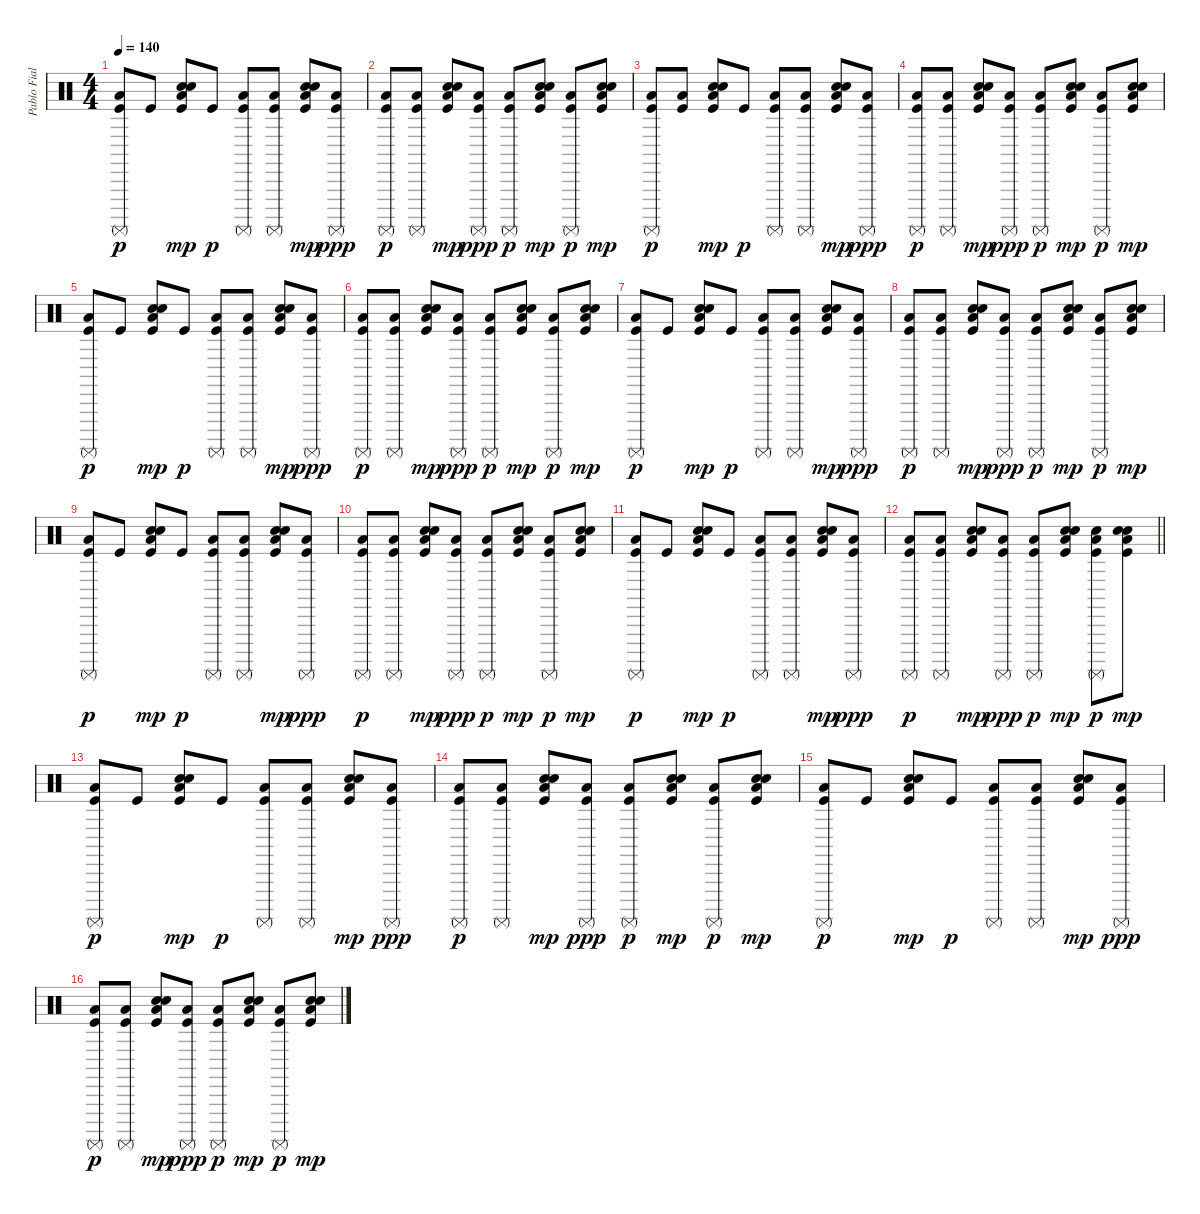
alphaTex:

\track ("Pablo Fiallo" "Pablo Fial") {instrument percussion}
\staff {score}
\articulation defaults
\ts (4 4)
\tempo 140
\clef neutral
\ks c
("Low Floor Tom (hit)" "Kick (hit)" "Surdo (mute)").8{dy p} "Kick (hit)".8 ("Low Floor Tom (hit)" "Electric Snare (hit)" "Kick (hit)" "Snare (hit) 2").8{dy mp} "Kick (hit)".8{dy p} ("Low Floor Tom (hit)" "Kick (hit)" "Surdo (mute)").8 ("Low Floor Tom (hit)" "Kick (hit)" "Surdo (mute)").8 ("Low Floor Tom (hit)" "Electric Snare (hit)" "Kick (hit)" "Snare (hit) 2").8{dy mp} ("Low Floor Tom (hit)" "Kick (hit)" "Surdo (mute)").8{dy ppp} |
("Low Floor Tom (hit)" "Kick (hit)" "Surdo (mute)").8{dy p} ("Low Floor Tom (hit)" "Kick (hit)" "Surdo (mute)").8 ("Low Floor Tom (hit)" "Electric Snare (hit)" "Kick (hit)" "Snare (hit) 2").8{dy mp} ("Low Floor Tom (hit)" "Kick (hit)" "Surdo (mute)").8{dy ppp} ("Low Floor Tom (hit)" "Kick (hit)" "Surdo (mute)").8{dy p} ("Low Floor Tom (hit)" "Electric Snare (hit)" "Kick (hit)" "Snare (hit) 2").8{dy mp} ("Low Floor Tom (hit)" "Kick (hit)" "Surdo (mute)").8{dy p} ("Low Floor Tom (hit)" "Electric Snare (hit)" "Kick (hit)" "Snare (hit) 2").8{dy mp} |
("Low Floor Tom (hit)" "Kick (hit)" "Surdo (mute)").8{dy p} ("Low Floor Tom (hit)" "Kick (hit)").8 ("Low Floor Tom (hit)" "Electric Snare (hit)" "Kick (hit)" "Snare (hit) 2").8{dy mp} "Kick (hit)".8{dy p} ("Low Floor Tom (hit)" "Kick (hit)" "Surdo (mute)").8 ("Low Floor Tom (hit)" "Kick (hit)" "Surdo (mute)").8 ("Low Floor Tom (hit)" "Electric Snare (hit)" "Kick (hit)" "Snare (hit) 2").8{dy mp} ("Low Floor Tom (hit)" "Kick (hit)" "Surdo (mute)").8{dy ppp} |
("Low Floor Tom (hit)" "Kick (hit)" "Surdo (mute)").8{dy p} ("Low Floor Tom (hit)" "Kick (hit)" "Surdo (mute)").8 ("Low Floor Tom (hit)" "Electric Snare (hit)" "Kick (hit)" "Snare (hit) 2").8{dy mp} ("Low Floor Tom (hit)" "Kick (hit)" "Surdo (mute)").8{dy ppp} ("Low Floor Tom (hit)" "Kick (hit)" "Surdo (mute)").8{dy p} ("Low Floor Tom (hit)" "Electric Snare (hit)" "Kick (hit)" "Snare (hit) 2").8{dy mp} ("Low Floor Tom (hit)" "Kick (hit)" "Surdo (mute)").8{dy p} ("Low Floor Tom (hit)" "Electric Snare (hit)" "Kick (hit)" "Snare (hit) 2").8{dy mp} |
("Low Floor Tom (hit)" "Kick (hit)" "Surdo (mute)").8{dy p} "Kick (hit)".8 ("Low Floor Tom (hit)" "Electric Snare (hit)" "Kick (hit)" "Snare (hit) 2").8{dy mp} "Kick (hit)".8{dy p} ("Low Floor Tom (hit)" "Kick (hit)" "Surdo (mute)").8 ("Low Floor Tom (hit)" "Kick (hit)" "Surdo (mute)").8 ("Low Floor Tom (hit)" "Electric Snare (hit)" "Kick (hit)" "Snare (hit) 2").8{dy mp} ("Low Floor Tom (hit)" "Kick (hit)" "Surdo (mute)").8{dy ppp} |
("Low Floor Tom (hit)" "Kick (hit)" "Surdo (mute)").8{dy p} ("Low Floor Tom (hit)" "Kick (hit)" "Surdo (mute)").8 ("Low Floor Tom (hit)" "Electric Snare (hit)" "Kick (hit)" "Snare (hit) 2").8{dy mp} ("Low Floor Tom (hit)" "Kick (hit)" "Surdo (mute)").8{dy ppp} ("Low Floor Tom (hit)" "Kick (hit)" "Surdo (mute)").8{dy p} ("Low Floor Tom (hit)" "Electric Snare (hit)" "Kick (hit)" "Snare (hit) 2").8{dy mp} ("Low Floor Tom (hit)" "Kick (hit)" "Surdo (mute)").8{dy p} ("Low Floor Tom (hit)" "Electric Snare (hit)" "Kick (hit)" "Snare (hit) 2").8{dy mp} |
("Low Floor Tom (hit)" "Kick (hit)" "Surdo (mute)").8{dy p} "Kick (hit)".8 ("Low Floor Tom (hit)" "Electric Snare (hit)" "Kick (hit)" "Snare (hit) 2").8{dy mp} "Kick (hit)".8{dy p} ("Low Floor Tom (hit)" "Kick (hit)" "Surdo (mute)").8 ("Low Floor Tom (hit)" "Kick (hit)" "Surdo (mute)").8 ("Low Floor Tom (hit)" "Electric Snare (hit)" "Kick (hit)" "Snare (hit) 2").8{dy mp} ("Low Floor Tom (hit)" "Kick (hit)" "Surdo (mute)").8{dy ppp} |
("Low Floor Tom (hit)" "Kick (hit)" "Surdo (mute)").8{dy p} ("Low Floor Tom (hit)" "Kick (hit)" "Surdo (mute)").8 ("Low Floor Tom (hit)" "Electric Snare (hit)" "Kick (hit)" "Snare (hit) 2").8{dy mp} ("Low Floor Tom (hit)" "Kick (hit)" "Surdo (mute)").8{dy ppp} ("Low Floor Tom (hit)" "Kick (hit)" "Surdo (mute)").8{dy p} ("Low Floor Tom (hit)" "Electric Snare (hit)" "Kick (hit)" "Snare (hit) 2").8{dy mp} ("Low Floor Tom (hit)" "Kick (hit)" "Surdo (mute)").8{dy p} ("Low Floor Tom (hit)" "Electric Snare (hit)" "Kick (hit)" "Snare (hit) 2").8{dy mp} |
("Low Floor Tom (hit)" "Kick (hit)" "Surdo (mute)").8{dy p} "Kick (hit)".8 ("Low Floor Tom (hit)" "Electric Snare (hit)" "Kick (hit)" "Snare (hit) 2").8{dy mp} "Kick (hit)".8{dy p} ("Low Floor Tom (hit)" "Kick (hit)" "Surdo (mute)").8 ("Low Floor Tom (hit)" "Kick (hit)" "Surdo (mute)").8 ("Low Floor Tom (hit)" "Electric Snare (hit)" "Kick (hit)" "Snare (hit) 2").8{dy mp} ("Low Floor Tom (hit)" "Kick (hit)" "Surdo (mute)").8{dy ppp} |
("Low Floor Tom (hit)" "Kick (hit)" "Surdo (mute)").8{dy p} ("Low Floor Tom (hit)" "Kick (hit)" "Surdo (mute)").8 ("Low Floor Tom (hit)" "Electric Snare (hit)" "Kick (hit)" "Snare (hit) 2").8{dy mp} ("Low Floor Tom (hit)" "Kick (hit)" "Surdo (mute)").8{dy ppp} ("Low Floor Tom (hit)" "Kick (hit)" "Surdo (mute)").8{dy p} ("Low Floor Tom (hit)" "Electric Snare (hit)" "Kick (hit)" "Snare (hit) 2").8{dy mp} ("Low Floor Tom (hit)" "Kick (hit)" "Surdo (mute)").8{dy p} ("Low Floor Tom (hit)" "Electric Snare (hit)" "Kick (hit)" "Snare (hit) 2").8{dy mp} |
("Low Floor Tom (hit)" "Kick (hit)" "Surdo (mute)").8{dy p} "Kick (hit)".8 ("Low Floor Tom (hit)" "Electric Snare (hit)" "Kick (hit)" "Snare (hit) 2").8{dy mp} "Kick (hit)".8{dy p} ("Low Floor Tom (hit)" "Kick (hit)" "Surdo (mute)").8 ("Low Floor Tom (hit)" "Kick (hit)" "Surdo (mute)").8 ("Low Floor Tom (hit)" "Electric Snare (hit)" "Kick (hit)" "Snare (hit) 2").8{dy mp} ("Low Floor Tom (hit)" "Kick (hit)" "Surdo (mute)").8{dy ppp} |
\barLineRight lightlight
("Low Floor Tom (hit)" "Kick (hit)" "Surdo (mute)").8{dy p} ("Low Floor Tom (hit)" "Kick (hit)" "Surdo (mute)").8 ("Low Floor Tom (hit)" "Electric Snare (hit)" "Kick (hit)" "Snare (hit) 2").8{dy mp} ("Low Floor Tom (hit)" "Kick (hit)" "Surdo (mute)").8{dy ppp} ("Low Floor Tom (hit)" "Kick (hit)" "Surdo (mute)").8{dy p} ("Low Floor Tom (hit)" "Electric Snare (hit)" "Kick (hit)" "Snare (hit) 2").8{dy mp} ("Low Floor Tom (hit)" "Electric Snare (hit)" "Kick (hit)" "Surdo (mute)").8{dy p} ("Low Floor Tom (hit)" "Electric Snare (hit)" "Kick (hit)" "Snare (hit) 2").8{dy mp} |
("Low Floor Tom (hit)" "Kick (hit)" "Surdo (mute)").8{dy p} "Kick (hit)".8 ("Low Floor Tom (hit)" "Electric Snare (hit)" "Kick (hit)" "Snare (hit) 2").8{dy mp} "Kick (hit)".8{dy p} ("Low Floor Tom (hit)" "Kick (hit)" "Surdo (mute)").8 ("Low Floor Tom (hit)" "Kick (hit)" "Surdo (mute)").8 ("Low Floor Tom (hit)" "Electric Snare (hit)" "Kick (hit)" "Snare (hit) 2").8{dy mp} ("Low Floor Tom (hit)" "Kick (hit)" "Surdo (mute)").8{dy ppp} |
("Low Floor Tom (hit)" "Kick (hit)" "Surdo (mute)").8{dy p} ("Low Floor Tom (hit)" "Kick (hit)" "Surdo (mute)").8 ("Low Floor Tom (hit)" "Electric Snare (hit)" "Kick (hit)" "Snare (hit) 2").8{dy mp} ("Low Floor Tom (hit)" "Kick (hit)" "Surdo (mute)").8{dy ppp} ("Low Floor Tom (hit)" "Kick (hit)" "Surdo (mute)").8{dy p} ("Low Floor Tom (hit)" "Electric Snare (hit)" "Kick (hit)" "Snare (hit) 2").8{dy mp} ("Low Floor Tom (hit)" "Kick (hit)" "Surdo (mute)").8{dy p} ("Low Floor Tom (hit)" "Electric Snare (hit)" "Kick (hit)" "Snare (hit) 2").8{dy mp} |
("Low Floor Tom (hit)" "Kick (hit)" "Surdo (mute)").8{dy p} "Kick (hit)".8 ("Low Floor Tom (hit)" "Electric Snare (hit)" "Kick (hit)" "Snare (hit) 2").8{dy mp} "Kick (hit)".8{dy p} ("Low Floor Tom (hit)" "Kick (hit)" "Surdo (mute)").8 ("Low Floor Tom (hit)" "Kick (hit)" "Surdo (mute)").8 ("Low Floor Tom (hit)" "Electric Snare (hit)" "Kick (hit)" "Snare (hit) 2").8{dy mp} ("Low Floor Tom (hit)" "Kick (hit)" "Surdo (mute)").8{dy ppp} |
("Low Floor Tom (hit)" "Kick (hit)" "Surdo (mute)").8{dy p} ("Low Floor Tom (hit)" "Kick (hit)" "Surdo (mute)").8 ("Low Floor Tom (hit)" "Electric Snare (hit)" "Kick (hit)" "Snare (hit) 2").8{dy mp} ("Low Floor Tom (hit)" "Kick (hit)" "Surdo (mute)").8{dy ppp} ("Low Floor Tom (hit)" "Kick (hit)" "Surdo (mute)").8{dy p} ("Low Floor Tom (hit)" "Electric Snare (hit)" "Kick (hit)" "Snare (hit) 2").8{dy mp} ("Low Floor Tom (hit)" "Kick (hit)" "Surdo (mute)").8{dy p} ("Low Floor Tom (hit)" "Electric Snare (hit)" "Kick (hit)" "Snare (hit) 2").8{dy mp}
